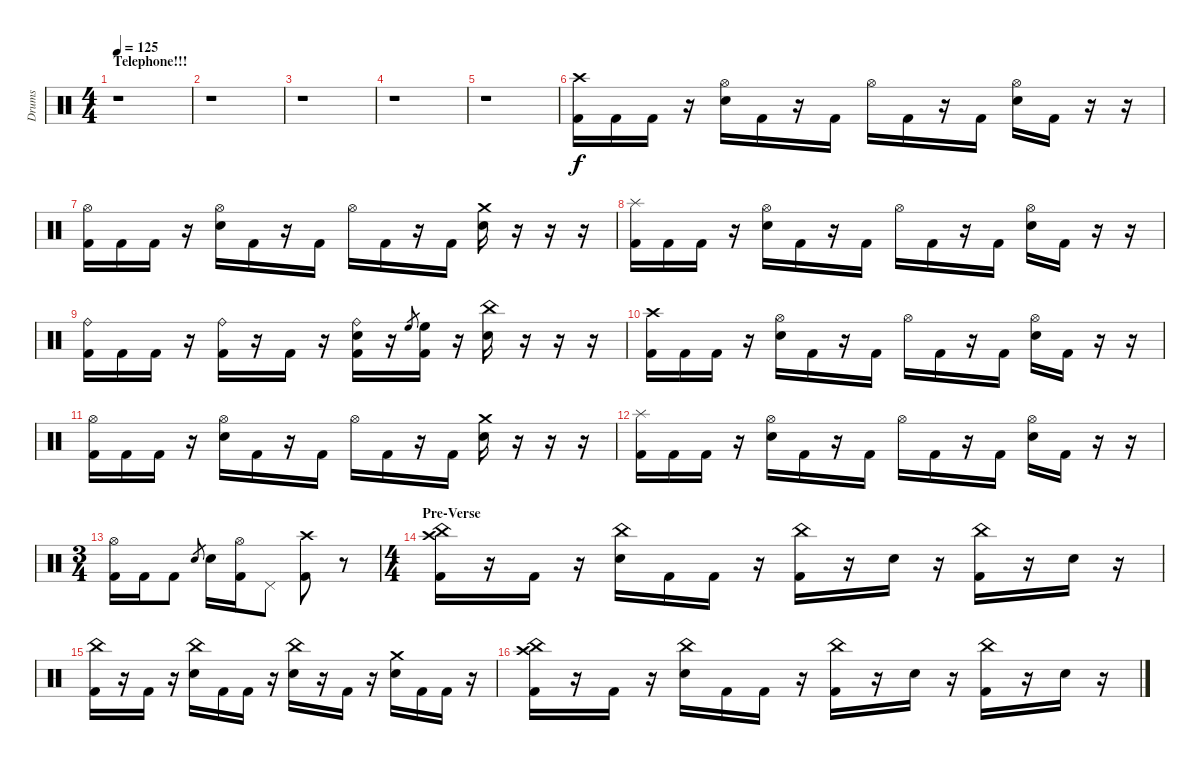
\track ("Drums" "Drums") {instrument percussion}
\staff {score}
\articulation defaults
\ts (4 4)
\section ("" "Telephone!!!")
\tempo 125
\clef neutral
\ks c
r.1{dy f} |
r.1 |
r.1 |
r.1 |
r.1 |
("Crash high (hit)" "Kick (hit) 2").16 "Kick (hit) 2".16 "Kick (hit) 2".16 r.16 ("Hi-Hat (open)" "Electric Snare (hit)").16 "Kick (hit) 2".16 r.16 "Kick (hit) 2".16 "Hi-Hat (open)".16 "Kick (hit) 2".16 r.16 "Kick (hit) 2".16 ("Hi-Hat (open)" "Electric Snare (hit)").16 "Kick (hit) 2".16 r.16 r.16 |
("Hi-Hat (open)" "Kick (hit) 2").16 "Kick (hit) 2".16 "Kick (hit) 2".16 r.16 ("Hi-Hat (open)" "Electric Snare (hit)").16 "Kick (hit) 2".16 r.16 "Kick (hit) 2".16 "Hi-Hat (open)".16 "Kick (hit) 2".16 r.16 "Kick (hit) 2".16 ("Crash medium (hit)" "Electric Snare (hit)").16 r.16 r.16 r.16 |
("Splash (hit)" "Kick (hit) 2").16 "Kick (hit) 2".16 "Kick (hit) 2".16 r.16 ("Hi-Hat (open)" "Electric Snare (hit)").16 "Kick (hit) 2".16 r.16 "Kick (hit) 2".16 "Hi-Hat (open)".16 "Kick (hit) 2".16 r.16 "Kick (hit) 2".16 ("Hi-Hat (open)" "Electric Snare (hit)").16 "Kick (hit) 2".16 r.16 r.16 |
("Ride (bell)" "Kick (hit) 2").16 "Kick (hit) 2".16 "Kick (hit) 2".16 r.16 ("Ride (bell)" "Kick (hit) 2").16 r.16 "Kick (hit) 2".16 r.16 ("Ride (bell)" "Electric Snare (hit)" "Kick (hit) 2").16 r.16 "High Floor Tom (hit)".8{gr} ("High Floor Tom (hit)" "Kick (hit) 2").16 r.16 ("China (hit)" "Electric Snare (hit)").16 r.16 r.16 r.16 |
("Crash high (hit)" "Kick (hit) 2").16 "Kick (hit) 2".16 "Kick (hit) 2".16 r.16 ("Hi-Hat (open)" "Electric Snare (hit)").16 "Kick (hit) 2".16 r.16 "Kick (hit) 2".16 "Hi-Hat (open)".16 "Kick (hit) 2".16 r.16 "Kick (hit) 2".16 ("Hi-Hat (open)" "Electric Snare (hit)").16 "Kick (hit) 2".16 r.16 r.16 |
("Hi-Hat (open)" "Kick (hit) 2").16 "Kick (hit) 2".16 "Kick (hit) 2".16 r.16 ("Hi-Hat (open)" "Electric Snare (hit)").16 "Kick (hit) 2".16 r.16 "Kick (hit) 2".16 "Hi-Hat (open)".16 "Kick (hit) 2".16 r.16 "Kick (hit) 2".16 ("Crash medium (hit)" "Electric Snare (hit)").16 r.16 r.16 r.16 |
("Splash (hit)" "Kick (hit) 2").16 "Kick (hit) 2".16 "Kick (hit) 2".16 r.16 ("Hi-Hat (open)" "Electric Snare (hit)").16 "Kick (hit) 2".16 r.16 "Kick (hit) 2".16 "Hi-Hat (open)".16 "Kick (hit) 2".16 r.16 "Kick (hit) 2".16 ("Hi-Hat (open)" "Electric Snare (hit)").16 "Kick (hit) 2".16 r.16 r.16 |
\ts (3 4)
("Hi-Hat (open)" "Kick (hit) 2").16 "Kick (hit) 2".16 "Kick (hit) 2".8 "Electric Snare (hit)".8{gr} "Electric Snare (hit)".16 ("Hi-Hat (open)" "Kick (hit) 2").16 "Pedal Hi-Hat (hit)".8 ("Crash high (hit)" "Kick (hit) 2").8 r.8{volume 0} |
\ts (4 4)
\section ("" "Pre-Verse")
("China (hit)" "Crash high (hit)" "Kick (hit) 2").16{volume 14} r.16 "Kick (hit) 2".16 r.16 ("China (hit)" "Electric Snare (hit)").16 "Kick (hit) 2".16 "Kick (hit) 2".16 r.16 ("China (hit)" "Kick (hit) 2").16 r.16 "Electric Snare (hit)".16 r.16 ("China (hit)" "Kick (hit) 2").16 r.16 "Electric Snare (hit)".16 r.16 |
("China (hit)" "Kick (hit) 2").16 r.16 "Kick (hit) 2".16 r.16 ("China (hit)" "Electric Snare (hit)").16 "Kick (hit) 2".16 "Kick (hit) 2".16 r.16 ("China (hit)" "Electric Snare (hit)").16 r.16 "Kick (hit) 2".16 r.16 ("Crash medium (hit)" "Electric Snare (hit)").16 "Kick (hit) 2".16 "Kick (hit) 2".16 r.16 |
("China (hit)" "Crash high (hit)" "Kick (hit) 2").16 r.16 "Kick (hit) 2".16 r.16 ("China (hit)" "Electric Snare (hit)").16 "Kick (hit) 2".16 "Kick (hit) 2".16 r.16 ("China (hit)" "Kick (hit) 2").16 r.16 "Electric Snare (hit)".16 r.16 ("China (hit)" "Kick (hit) 2").16 r.16 "Electric Snare (hit)".16 r.16
